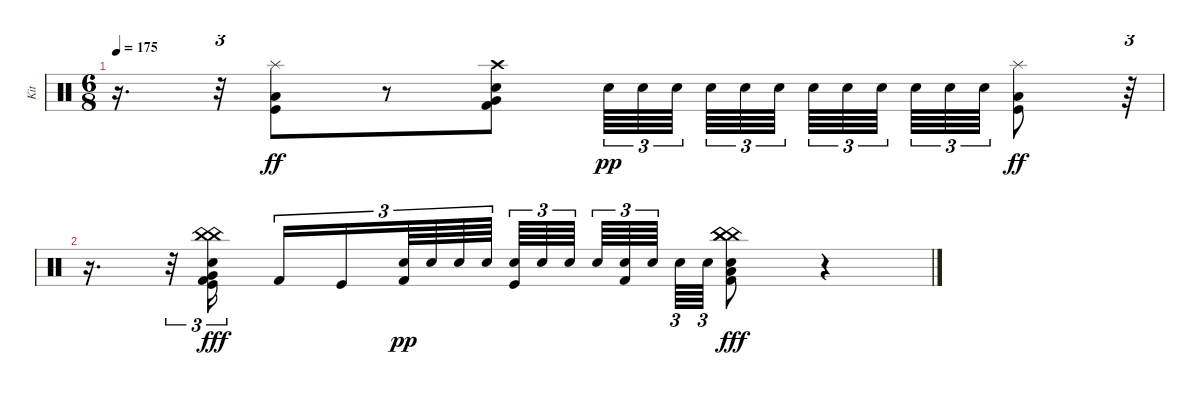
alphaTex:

\track ("Kit" "Kit") {instrument percussion}
\staff {score}
\articulation defaults
\ts (6 8)
\tempo 175
\clef neutral
\ks c
r.16{d dy ff} r.32{tu (3 2)} ("Kick (hit)" "Low Floor Tom (hit)" "Splash (hit)").8 r.8 ("Kick (hit) 2" "Electric Snare (hit)" "Very Low Tom (hit)" "Crash high (hit)").8 "Snare (hit) 2".64{tu (3 2) dy pp} "Snare (hit) 2".64{tu (3 2)} "Snare (hit) 2".64{tu (3 2) beam splitsecondary} "Snare (hit) 2".64{tu (3 2)} "Snare (hit) 2".64{tu (3 2)} "Snare (hit) 2".64{tu (3 2) beam splitsecondary} "Snare (hit) 2".64{tu (3 2)} "Snare (hit) 2".64{tu (3 2)} "Snare (hit) 2".64{tu (3 2) beam splitsecondary} "Snare (hit) 2".64{tu (3 2)} "Snare (hit) 2".64{tu (3 2)} "Snare (hit) 2".64{tu (3 2)} ("Kick (hit)" "Low Floor Tom (hit)" "Splash (hit)").8{dy ff} r.64{tu (3 2)} |
r.16{d} r.32{tu (3 2)} ("Kick (hit)" "Kick (hit) 2" "Electric Snare (hit)" "Very Low Tom (hit)" "China (hit)" "China (hit)").16{tu (3 2) dy fff beam splitsecondary} "Kick (hit) 2".16{tu (3 2)} "Kick (hit)".16{tu (3 2)} ("Kick (hit) 2" "Snare (hit) 2").64{tu (3 2) dy pp} "Snare (hit) 2".64{tu (3 2)} "Snare (hit) 2".64{tu (3 2)} "Snare (hit) 2".64{tu (3 2) beam splitsecondary} ("Kick (hit)" "Snare (hit) 2").64{tu (3 2)} "Snare (hit) 2".64{tu (3 2)} "Snare (hit) 2".64{tu (3 2) beam splitsecondary} "Snare (hit) 2".64{tu (3 2)} ("Kick (hit) 2" "Snare (hit) 2").64{tu (3 2)} "Snare (hit) 2".64{tu (3 2) beam splitsecondary} "Snare (hit) 2".64{tu (3 2)} "Snare (hit) 2".64{tu (3 2)} ("Kick (hit) 2" "Electric Snare (hit)" "Low Floor Tom (hit)" "China (hit)" "China (hit)" "China (hit)").8{dy fff} r.4
